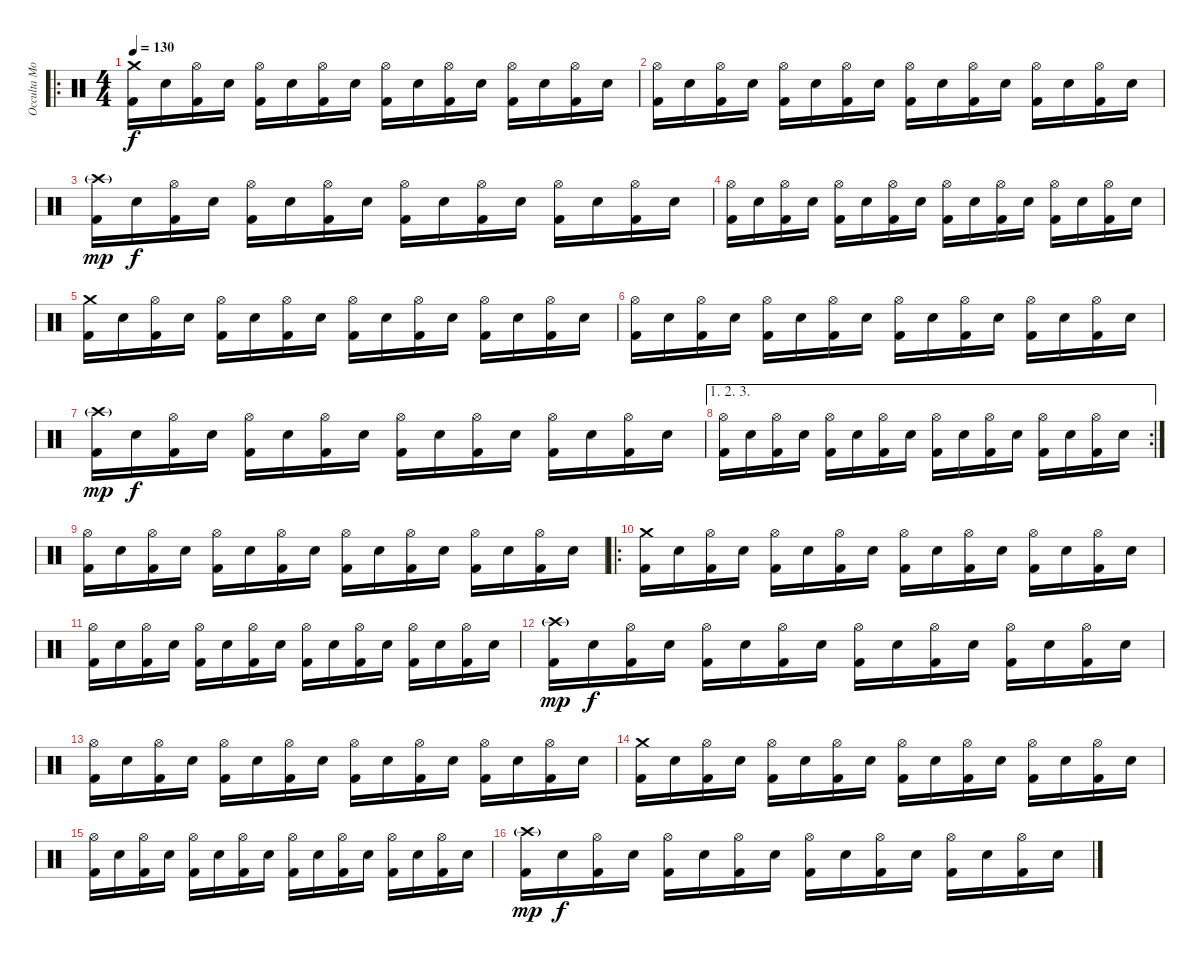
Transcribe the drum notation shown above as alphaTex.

\track ("Occulta Mors" "Occulta Mo") {instrument percussion}
\staff {score}
\articulation defaults
\ro
\ts (4 4)
\tempo 130
\clef neutral
\ks c
("Crash medium (hit)" "Kick (hit) 2").16{dy f} "Snare (hit) 2".16 ("Hi-Hat (open)" "Kick (hit) 2").16 "Snare (hit) 2".16 ("Hi-Hat (open)" "Kick (hit) 2").16 "Snare (hit) 2".16 ("Hi-Hat (open)" "Kick (hit) 2").16 "Snare (hit) 2".16 ("Hi-Hat (open)" "Kick (hit) 2").16 "Snare (hit) 2".16 ("Hi-Hat (open)" "Kick (hit) 2").16 "Snare (hit) 2".16 ("Hi-Hat (open)" "Kick (hit) 2").16 "Snare (hit) 2".16 ("Hi-Hat (open)" "Kick (hit) 2").16 "Snare (hit) 2".16 |
("Hi-Hat (open)" "Kick (hit) 2").16 "Snare (hit) 2".16 ("Hi-Hat (open)" "Kick (hit) 2").16 "Snare (hit) 2".16 ("Hi-Hat (open)" "Kick (hit) 2").16 "Snare (hit) 2".16 ("Hi-Hat (open)" "Kick (hit) 2").16 "Snare (hit) 2".16 ("Hi-Hat (open)" "Kick (hit) 2").16 "Snare (hit) 2".16 ("Hi-Hat (open)" "Kick (hit) 2").16 "Snare (hit) 2".16 ("Hi-Hat (open)" "Kick (hit) 2").16 "Snare (hit) 2".16 ("Hi-Hat (open)" "Kick (hit) 2").16 "Snare (hit) 2".16 |
("Crash high (hit)"{g} "Kick (hit) 2").16{dy mp} "Snare (hit) 2".16{dy f} ("Hi-Hat (open)" "Kick (hit) 2").16 "Snare (hit) 2".16 ("Hi-Hat (open)" "Kick (hit) 2").16 "Snare (hit) 2".16 ("Hi-Hat (open)" "Kick (hit) 2").16 "Snare (hit) 2".16 ("Hi-Hat (open)" "Kick (hit) 2").16 "Snare (hit) 2".16 ("Hi-Hat (open)" "Kick (hit) 2").16 "Snare (hit) 2".16 ("Hi-Hat (open)" "Kick (hit) 2").16 "Snare (hit) 2".16 ("Hi-Hat (open)" "Kick (hit) 2").16 "Snare (hit) 2".16 |
("Hi-Hat (open)" "Kick (hit) 2").16 "Snare (hit) 2".16 ("Hi-Hat (open)" "Kick (hit) 2").16 "Snare (hit) 2".16 ("Hi-Hat (open)" "Kick (hit) 2").16 "Snare (hit) 2".16 ("Hi-Hat (open)" "Kick (hit) 2").16 "Snare (hit) 2".16 ("Hi-Hat (open)" "Kick (hit) 2").16 "Snare (hit) 2".16 ("Hi-Hat (open)" "Kick (hit) 2").16 "Snare (hit) 2".16 ("Hi-Hat (open)" "Kick (hit) 2").16 "Snare (hit) 2".16 ("Hi-Hat (open)" "Kick (hit) 2").16 "Snare (hit) 2".16 |
("Crash medium (hit)" "Kick (hit) 2").16 "Snare (hit) 2".16 ("Hi-Hat (open)" "Kick (hit) 2").16 "Snare (hit) 2".16 ("Hi-Hat (open)" "Kick (hit) 2").16 "Snare (hit) 2".16 ("Hi-Hat (open)" "Kick (hit) 2").16 "Snare (hit) 2".16 ("Hi-Hat (open)" "Kick (hit) 2").16 "Snare (hit) 2".16 ("Hi-Hat (open)" "Kick (hit) 2").16 "Snare (hit) 2".16 ("Hi-Hat (open)" "Kick (hit) 2").16 "Snare (hit) 2".16 ("Hi-Hat (open)" "Kick (hit) 2").16 "Snare (hit) 2".16 |
("Hi-Hat (open)" "Kick (hit) 2").16 "Snare (hit) 2".16 ("Hi-Hat (open)" "Kick (hit) 2").16 "Snare (hit) 2".16 ("Hi-Hat (open)" "Kick (hit) 2").16 "Snare (hit) 2".16 ("Hi-Hat (open)" "Kick (hit) 2").16 "Snare (hit) 2".16 ("Hi-Hat (open)" "Kick (hit) 2").16 "Snare (hit) 2".16 ("Hi-Hat (open)" "Kick (hit) 2").16 "Snare (hit) 2".16 ("Hi-Hat (open)" "Kick (hit) 2").16 "Snare (hit) 2".16 ("Hi-Hat (open)" "Kick (hit) 2").16 "Snare (hit) 2".16 |
("Crash high (hit)"{g} "Kick (hit) 2").16{dy mp} "Snare (hit) 2".16{dy f} ("Hi-Hat (open)" "Kick (hit) 2").16 "Snare (hit) 2".16 ("Hi-Hat (open)" "Kick (hit) 2").16 "Snare (hit) 2".16 ("Hi-Hat (open)" "Kick (hit) 2").16 "Snare (hit) 2".16 ("Hi-Hat (open)" "Kick (hit) 2").16 "Snare (hit) 2".16 ("Hi-Hat (open)" "Kick (hit) 2").16 "Snare (hit) 2".16 ("Hi-Hat (open)" "Kick (hit) 2").16 "Snare (hit) 2".16 ("Hi-Hat (open)" "Kick (hit) 2").16 "Snare (hit) 2".16 |
\ae (1 2 3)
\rc 2
("Hi-Hat (open)" "Kick (hit) 2").16 "Snare (hit) 2".16 ("Hi-Hat (open)" "Kick (hit) 2").16 "Snare (hit) 2".16 ("Hi-Hat (open)" "Kick (hit) 2").16 "Snare (hit) 2".16 ("Hi-Hat (open)" "Kick (hit) 2").16 "Snare (hit) 2".16 ("Hi-Hat (open)" "Kick (hit) 2").16 "Snare (hit) 2".16 ("Hi-Hat (open)" "Kick (hit) 2").16 "Snare (hit) 2".16 ("Hi-Hat (open)" "Kick (hit) 2").16 "Snare (hit) 2".16 ("Hi-Hat (open)" "Kick (hit) 2").16 "Snare (hit) 2".16 |
("Hi-Hat (open)" "Kick (hit) 2").16 "Snare (hit) 2".16 ("Hi-Hat (open)" "Kick (hit) 2").16 "Snare (hit) 2".16 ("Hi-Hat (open)" "Kick (hit) 2").16 "Snare (hit) 2".16 ("Hi-Hat (open)" "Kick (hit) 2").16 "Snare (hit) 2".16 ("Hi-Hat (open)" "Kick (hit) 2").16 "Snare (hit) 2".16 ("Hi-Hat (open)" "Kick (hit) 2").16 "Snare (hit) 2".16 ("Hi-Hat (open)" "Kick (hit) 2").16 "Snare (hit) 2".16 ("Hi-Hat (open)" "Kick (hit) 2").16 "Snare (hit) 2".16 |
\ro
("Crash medium (hit)" "Kick (hit) 2").16 "Snare (hit) 2".16 ("Hi-Hat (open)" "Kick (hit) 2").16 "Snare (hit) 2".16 ("Hi-Hat (open)" "Kick (hit) 2").16 "Snare (hit) 2".16 ("Hi-Hat (open)" "Kick (hit) 2").16 "Snare (hit) 2".16 ("Hi-Hat (open)" "Kick (hit) 2").16 "Snare (hit) 2".16 ("Hi-Hat (open)" "Kick (hit) 2").16 "Snare (hit) 2".16 ("Hi-Hat (open)" "Kick (hit) 2").16 "Snare (hit) 2".16 ("Hi-Hat (open)" "Kick (hit) 2").16 "Snare (hit) 2".16 |
("Hi-Hat (open)" "Kick (hit) 2").16 "Snare (hit) 2".16 ("Hi-Hat (open)" "Kick (hit) 2").16 "Snare (hit) 2".16 ("Hi-Hat (open)" "Kick (hit) 2").16 "Snare (hit) 2".16 ("Hi-Hat (open)" "Kick (hit) 2").16 "Snare (hit) 2".16 ("Hi-Hat (open)" "Kick (hit) 2").16 "Snare (hit) 2".16 ("Hi-Hat (open)" "Kick (hit) 2").16 "Snare (hit) 2".16 ("Hi-Hat (open)" "Kick (hit) 2").16 "Snare (hit) 2".16 ("Hi-Hat (open)" "Kick (hit) 2").16 "Snare (hit) 2".16 |
("Crash high (hit)"{g} "Kick (hit) 2").16{dy mp} "Snare (hit) 2".16{dy f} ("Hi-Hat (open)" "Kick (hit) 2").16 "Snare (hit) 2".16 ("Hi-Hat (open)" "Kick (hit) 2").16 "Snare (hit) 2".16 ("Hi-Hat (open)" "Kick (hit) 2").16 "Snare (hit) 2".16 ("Hi-Hat (open)" "Kick (hit) 2").16 "Snare (hit) 2".16 ("Hi-Hat (open)" "Kick (hit) 2").16 "Snare (hit) 2".16 ("Hi-Hat (open)" "Kick (hit) 2").16 "Snare (hit) 2".16 ("Hi-Hat (open)" "Kick (hit) 2").16 "Snare (hit) 2".16 |
("Hi-Hat (open)" "Kick (hit) 2").16 "Snare (hit) 2".16 ("Hi-Hat (open)" "Kick (hit) 2").16 "Snare (hit) 2".16 ("Hi-Hat (open)" "Kick (hit) 2").16 "Snare (hit) 2".16 ("Hi-Hat (open)" "Kick (hit) 2").16 "Snare (hit) 2".16 ("Hi-Hat (open)" "Kick (hit) 2").16 "Snare (hit) 2".16 ("Hi-Hat (open)" "Kick (hit) 2").16 "Snare (hit) 2".16 ("Hi-Hat (open)" "Kick (hit) 2").16 "Snare (hit) 2".16 ("Hi-Hat (open)" "Kick (hit) 2").16 "Snare (hit) 2".16 |
("Crash medium (hit)" "Kick (hit) 2").16 "Snare (hit) 2".16 ("Hi-Hat (open)" "Kick (hit) 2").16 "Snare (hit) 2".16 ("Hi-Hat (open)" "Kick (hit) 2").16 "Snare (hit) 2".16 ("Hi-Hat (open)" "Kick (hit) 2").16 "Snare (hit) 2".16 ("Hi-Hat (open)" "Kick (hit) 2").16 "Snare (hit) 2".16 ("Hi-Hat (open)" "Kick (hit) 2").16 "Snare (hit) 2".16 ("Hi-Hat (open)" "Kick (hit) 2").16 "Snare (hit) 2".16 ("Hi-Hat (open)" "Kick (hit) 2").16 "Snare (hit) 2".16 |
("Hi-Hat (open)" "Kick (hit) 2").16 "Snare (hit) 2".16 ("Hi-Hat (open)" "Kick (hit) 2").16 "Snare (hit) 2".16 ("Hi-Hat (open)" "Kick (hit) 2").16 "Snare (hit) 2".16 ("Hi-Hat (open)" "Kick (hit) 2").16 "Snare (hit) 2".16 ("Hi-Hat (open)" "Kick (hit) 2").16 "Snare (hit) 2".16 ("Hi-Hat (open)" "Kick (hit) 2").16 "Snare (hit) 2".16 ("Hi-Hat (open)" "Kick (hit) 2").16 "Snare (hit) 2".16 ("Hi-Hat (open)" "Kick (hit) 2").16 "Snare (hit) 2".16 |
("Crash high (hit)"{g} "Kick (hit) 2").16{dy mp} "Snare (hit) 2".16{dy f} ("Hi-Hat (open)" "Kick (hit) 2").16 "Snare (hit) 2".16 ("Hi-Hat (open)" "Kick (hit) 2").16 "Snare (hit) 2".16 ("Hi-Hat (open)" "Kick (hit) 2").16 "Snare (hit) 2".16 ("Hi-Hat (open)" "Kick (hit) 2").16 "Snare (hit) 2".16 ("Hi-Hat (open)" "Kick (hit) 2").16 "Snare (hit) 2".16 ("Hi-Hat (open)" "Kick (hit) 2").16 "Snare (hit) 2".16 ("Hi-Hat (open)" "Kick (hit) 2").16 "Snare (hit) 2".16
